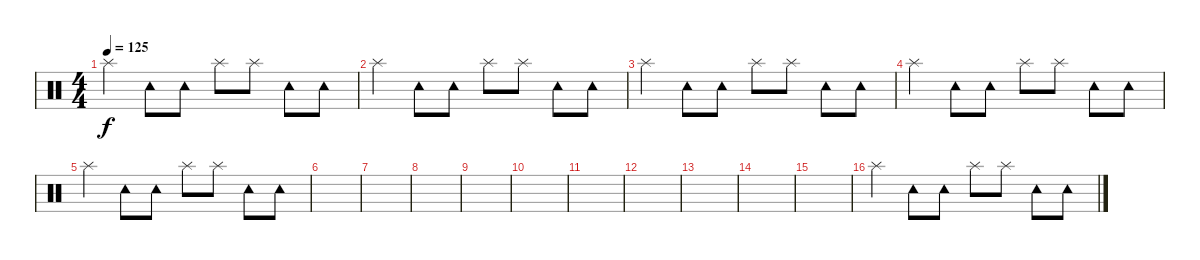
\track "" {instrument percussion}
\staff {score}
\articulation defaults
\ts (4 4)
\tempo 125
\clef neutral
\ks c "Splash (hit)".4{dy f} "Tambourine (hit)".8 "Tambourine (hit)".8 "Splash (hit)".8 "Splash (hit)".8 "Tambourine (hit)".8 "Tambourine (hit)".8
|
"Splash (hit)".4 "Tambourine (hit)".8 "Tambourine (hit)".8 "Splash (hit)".8 "Splash (hit)".8 "Tambourine (hit)".8 "Tambourine (hit)".8 |
"Splash (hit)".4 "Tambourine (hit)".8 "Tambourine (hit)".8 "Splash (hit)".8 "Splash (hit)".8 "Tambourine (hit)".8 "Tambourine (hit)".8 |
"Splash (hit)".4 "Tambourine (hit)".8 "Tambourine (hit)".8 "Splash (hit)".8 "Splash (hit)".8 "Tambourine (hit)".8 "Tambourine (hit)".8 |
"Splash (hit)".4 "Tambourine (hit)".8 "Tambourine (hit)".8 "Splash (hit)".8 "Splash (hit)".8 "Tambourine (hit)".8 "Tambourine (hit)".8 |
|
|
|
|
|
|
|
|
|
|
"Splash (hit)".4 "Tambourine (hit)".8 "Tambourine (hit)".8 "Splash (hit)".8 "Splash (hit)".8 "Tambourine (hit)".8 "Tambourine (hit)".8
